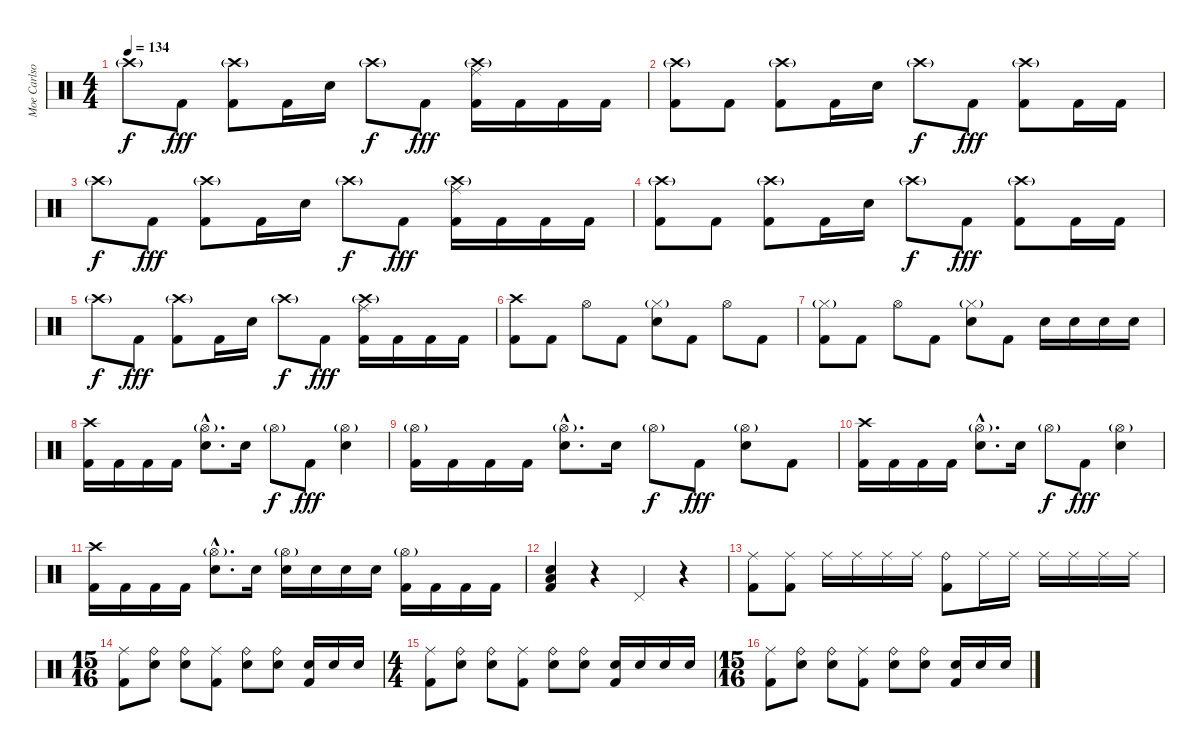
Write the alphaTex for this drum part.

\track ("Moe Carlson" "Moe Carlso") {instrument percussion}
\staff {score}
\articulation defaults
\ts (4 4)
\tempo 134
\clef neutral
\ks c "Crash high (hit)"{g}.8{dy f} "Kick (hit) 2".8{dy fff}
("Crash high (hit)"{g} "Kick (hit) 2").8 "Kick (hit) 2".16 "Electric Snare (hit)".16 "Crash high (hit)"{g}.8{dy f} "Kick (hit) 2".8{dy fff} ("Crash high (hit)"{g} "Ride (middle)" "Kick (hit) 2").16 "Kick (hit) 2".16 "Kick (hit) 2".16 "Kick (hit) 2".16 |
("Crash high (hit)"{g} "Kick (hit) 2").8 "Kick (hit) 2".8 ("Crash high (hit)"{g} "Kick (hit) 2").8 "Kick (hit) 2".16 "Electric Snare (hit)".16 "Crash high (hit)"{g}.8{dy f} "Kick (hit) 2".8{dy fff} ("Crash high (hit)"{g} "Kick (hit) 2").8 "Kick (hit) 2".16 "Kick (hit) 2".16 |
"Crash high (hit)"{g}.8{dy f} "Kick (hit) 2".8{dy fff} ("Crash high (hit)"{g} "Kick (hit) 2").8 "Kick (hit) 2".16 "Electric Snare (hit)".16 "Crash high (hit)"{g}.8{dy f} "Kick (hit) 2".8{dy fff} ("Crash high (hit)"{g} "Ride (middle)" "Kick (hit) 2").16 "Kick (hit) 2".16 "Kick (hit) 2".16 "Kick (hit) 2".16 |
("Crash high (hit)"{g} "Kick (hit) 2").8 "Kick (hit) 2".8 ("Crash high (hit)"{g} "Kick (hit) 2").8 "Kick (hit) 2".16 "Electric Snare (hit)".16 "Crash high (hit)"{g}.8{dy f} "Kick (hit) 2".8{dy fff} ("Crash high (hit)"{g} "Kick (hit) 2").8 "Kick (hit) 2".16 "Kick (hit) 2".16 |
"Crash high (hit)"{g}.8{dy f} "Kick (hit) 2".8{dy fff} ("Crash high (hit)"{g} "Kick (hit) 2").8 "Kick (hit) 2".16 "Electric Snare (hit)".16 "Crash high (hit)"{g}.8{dy f} "Kick (hit) 2".8{dy fff} ("Crash high (hit)"{g} "Ride (middle)" "Kick (hit) 2").16 "Kick (hit) 2".16 "Kick (hit) 2".16 "Kick (hit) 2".16 |
("Crash high (hit)" "Kick (hit) 2").8 "Kick (hit) 2".8 "Hi-Hat (open)".8 "Kick (hit) 2".8 ("Hi-Hat (closed)"{g} "Electric Snare (hit)").8 "Kick (hit) 2".8 "Hi-Hat (open)".8 "Kick (hit) 2".8 |
("Hi-Hat (closed)"{g} "Kick (hit) 2").8 "Kick (hit) 2".8 "Hi-Hat (open)".8 "Kick (hit) 2".8 ("Hi-Hat (closed)"{g} "Electric Snare (hit)").8 "Kick (hit) 2".8 "Electric Snare (hit)".16 "Electric Snare (hit)".16 "Electric Snare (hit)".16 "Electric Snare (hit)".16 |
("Crash high (hit)" "Kick (hit) 2").16 "Kick (hit) 2".16 "Kick (hit) 2".16 "Kick (hit) 2".16 ("Hi-Hat (open)"{g hac} "Electric Snare (hit)"{hac}).8{d} "Electric Snare (hit)".16 "Hi-Hat (open)"{g}.8{dy f} "Kick (hit) 2".8{dy fff} ("Hi-Hat (open)"{g} "Electric Snare (hit)").4 |
("Hi-Hat (open)"{g} "Kick (hit) 2").16 "Kick (hit) 2".16 "Kick (hit) 2".16 "Kick (hit) 2".16 ("Hi-Hat (open)"{g hac} "Electric Snare (hit)"{hac}).8{d} "Electric Snare (hit)".16 "Hi-Hat (open)"{g}.8{dy f} "Kick (hit) 2".8{dy fff} ("Hi-Hat (open)"{g} "Electric Snare (hit)").8 "Kick (hit) 2".8 |
("Crash high (hit)" "Kick (hit) 2").16 "Kick (hit) 2".16 "Kick (hit) 2".16 "Kick (hit) 2".16 ("Hi-Hat (open)"{g hac} "Electric Snare (hit)"{hac}).8{d} "Electric Snare (hit)".16 "Hi-Hat (open)"{g}.8{dy f} "Kick (hit) 2".8{dy fff} ("Hi-Hat (open)"{g} "Electric Snare (hit)").4 |
("Crash high (hit)" "Kick (hit) 2").16 "Kick (hit) 2".16 "Kick (hit) 2".16 "Kick (hit) 2".16 ("Hi-Hat (open)"{g hac} "Electric Snare (hit)"{hac}).8{d} "Electric Snare (hit)".16 ("Hi-Hat (open)"{g} "Electric Snare (hit)").16 "Electric Snare (hit)".16 "Electric Snare (hit)".16 "Electric Snare (hit)".16 ("Hi-Hat (open)"{g} "Kick (hit) 2").16 "Kick (hit) 2".16 "Kick (hit) 2".16 "Kick (hit) 2".16 |
("Electric Snare (hit)" "Low Floor Tom (hit)" "Kick (hit) 2").4 r.4 "Pedal Hi-Hat (hit)".4 r.4 |
("Ride (middle)" "Kick (hit) 2").8 ("Ride (middle)" "Kick (hit) 2").8 "Ride (middle)".16 "Ride (middle)".16 "Ride (middle)".16 "Ride (middle)".16 ("Ride (bell)" "Kick (hit) 2").8 "Ride (middle)".16 "Ride (middle)".16 "Ride (middle)".16 "Ride (middle)".16 "Ride (middle)".16 "Ride (middle)".16 |
\ts (15 16)
("Ride (middle)" "Kick (hit) 2").8 ("Ride (bell)" "Electric Snare (hit)").8 ("Ride (bell)" "Electric Snare (hit)").8 ("Ride (middle)" "Kick (hit) 2").8 ("Ride (bell)" "Electric Snare (hit)").8 ("Ride (bell)" "Electric Snare (hit)").8 ("Electric Snare (hit)" "Kick (hit) 2").16 "Electric Snare (hit)".16 "Electric Snare (hit)".16 |
\ts (4 4)
("Ride (middle)" "Kick (hit) 2").8 ("Ride (bell)" "Electric Snare (hit)").8 ("Ride (bell)" "Electric Snare (hit)").8 ("Ride (middle)" "Kick (hit) 2").8 ("Ride (bell)" "Electric Snare (hit)").8 ("Ride (bell)" "Electric Snare (hit)").8 ("Electric Snare (hit)" "Kick (hit) 2").16 "Electric Snare (hit)".16 "Electric Snare (hit)".16 "Electric Snare (hit)".16 |
\ts (15 16)
("Ride (middle)" "Kick (hit) 2").8 ("Ride (bell)" "Electric Snare (hit)").8 ("Ride (bell)" "Electric Snare (hit)").8 ("Ride (middle)" "Kick (hit) 2").8 ("Ride (bell)" "Electric Snare (hit)").8 ("Ride (bell)" "Electric Snare (hit)").8 ("Electric Snare (hit)" "Kick (hit) 2").16 "Electric Snare (hit)".16 "Electric Snare (hit)".16
